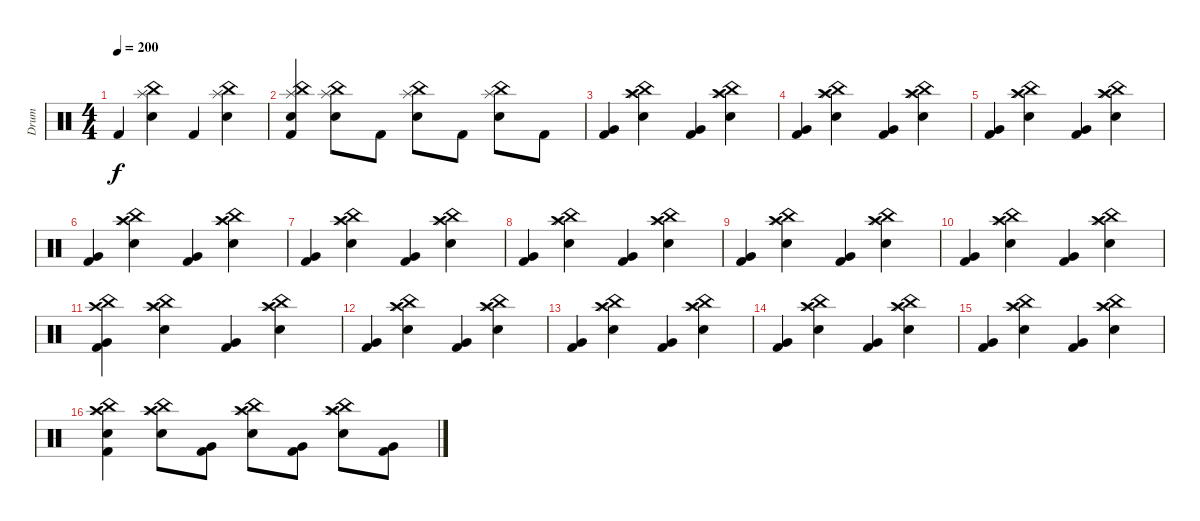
\track ("Drum" "Drum") {instrument percussion}
\staff {score}
\articulation defaults
\ts (4 4)
\tempo 200
\clef neutral
\ks c "Kick (hit) 2".4{dy f}
("China (hit)" "Splash (hit)" "Electric Snare (hit)").4 "Kick (hit) 2".4 ("China (hit)" "Splash (hit)" "Electric Snare (hit)").4 |
("China (hit)" "Splash (hit)" "Electric Snare (hit)" "Kick (hit) 2").4 ("China (hit)" "Splash (hit)" "Electric Snare (hit)").8 "Kick (hit) 2".8 ("China (hit)" "Splash (hit)" "Electric Snare (hit)").8 "Kick (hit) 2".8 ("China (hit)" "Splash (hit)" "Electric Snare (hit)").8 "Kick (hit) 2".8 |
("Very Low Tom (hit)" "Kick (hit) 2").4 ("Crash high (hit)" "Splash (hit)" "Electric Snare (hit)" "China (hit)").4 ("Very Low Tom (hit)" "Kick (hit) 2").4 ("Crash high (hit)" "Splash (hit)" "Electric Snare (hit)" "China (hit)").4 |
("Very Low Tom (hit)" "Kick (hit) 2").4 ("Crash high (hit)" "Splash (hit)" "Electric Snare (hit)" "China (hit)").4 ("Very Low Tom (hit)" "Kick (hit) 2").4 ("Crash high (hit)" "Splash (hit)" "Electric Snare (hit)" "China (hit)").4 |
("Very Low Tom (hit)" "Kick (hit) 2").4 ("Crash high (hit)" "Splash (hit)" "Electric Snare (hit)" "China (hit)").4 ("Very Low Tom (hit)" "Kick (hit) 2").4 ("Crash high (hit)" "Splash (hit)" "Electric Snare (hit)" "China (hit)").4 |
("Very Low Tom (hit)" "Kick (hit) 2").4 ("Crash high (hit)" "Splash (hit)" "Electric Snare (hit)" "China (hit)").4 ("Very Low Tom (hit)" "Kick (hit) 2").4 ("Crash high (hit)" "Splash (hit)" "Electric Snare (hit)" "China (hit)").4 |
("Very Low Tom (hit)" "Kick (hit) 2").4 ("Crash high (hit)" "Splash (hit)" "Electric Snare (hit)" "China (hit)").4 ("Very Low Tom (hit)" "Kick (hit) 2").4 ("Crash high (hit)" "Splash (hit)" "Electric Snare (hit)" "China (hit)").4 |
("Very Low Tom (hit)" "Kick (hit) 2").4 ("Crash high (hit)" "Splash (hit)" "Electric Snare (hit)" "China (hit)").4 ("Very Low Tom (hit)" "Kick (hit) 2").4 ("Crash high (hit)" "Splash (hit)" "Electric Snare (hit)" "China (hit)").4 |
("Very Low Tom (hit)" "Kick (hit) 2").4 ("Crash high (hit)" "Splash (hit)" "Electric Snare (hit)" "China (hit)").4 ("Very Low Tom (hit)" "Kick (hit) 2").4 ("Crash high (hit)" "Splash (hit)" "Electric Snare (hit)" "China (hit)").4 |
("Very Low Tom (hit)" "Kick (hit) 2").4 ("Crash high (hit)" "Splash (hit)" "Electric Snare (hit)" "China (hit)").4 ("Very Low Tom (hit)" "Kick (hit) 2").4 ("Crash high (hit)" "Splash (hit)" "Electric Snare (hit)" "China (hit)").4 |
("Crash high (hit)" "China (hit)" "Very Low Tom (hit)" "Kick (hit) 2").4 ("Crash high (hit)" "Splash (hit)" "Electric Snare (hit)" "China (hit)").4 ("Very Low Tom (hit)" "Kick (hit) 2").4 ("Crash high (hit)" "Splash (hit)" "Electric Snare (hit)" "China (hit)").4 |
("Very Low Tom (hit)" "Kick (hit) 2").4 ("Crash high (hit)" "Splash (hit)" "Electric Snare (hit)" "China (hit)").4 ("Very Low Tom (hit)" "Kick (hit) 2").4 ("Crash high (hit)" "Splash (hit)" "Electric Snare (hit)" "China (hit)").4 |
("Very Low Tom (hit)" "Kick (hit) 2").4 ("Crash high (hit)" "Splash (hit)" "Electric Snare (hit)" "China (hit)").4 ("Very Low Tom (hit)" "Kick (hit) 2").4 ("Crash high (hit)" "Splash (hit)" "Electric Snare (hit)" "China (hit)").4 |
("Very Low Tom (hit)" "Kick (hit) 2").4 ("Crash high (hit)" "Splash (hit)" "Electric Snare (hit)" "China (hit)").4 ("Very Low Tom (hit)" "Kick (hit) 2").4 ("Crash high (hit)" "Splash (hit)" "Electric Snare (hit)" "China (hit)").4 |
("Very Low Tom (hit)" "Kick (hit) 2").4 ("Crash high (hit)" "Splash (hit)" "Electric Snare (hit)" "China (hit)").4 ("Very Low Tom (hit)" "Kick (hit) 2").4 ("Crash high (hit)" "Splash (hit)" "Electric Snare (hit)" "China (hit)").4 |
("Crash high (hit)" "Splash (hit)" "Electric Snare (hit)" "China (hit)" "Kick (hit) 2").4 ("Crash high (hit)" "Splash (hit)" "Electric Snare (hit)" "China (hit)").8 ("Very Low Tom (hit)" "Kick (hit) 2").8 ("Crash high (hit)" "Splash (hit)" "Electric Snare (hit)" "China (hit)").8 ("Very Low Tom (hit)" "Kick (hit) 2").8 ("Crash high (hit)" "Splash (hit)" "Electric Snare (hit)" "China (hit)").8 ("Very Low Tom (hit)" "Kick (hit) 2").8
